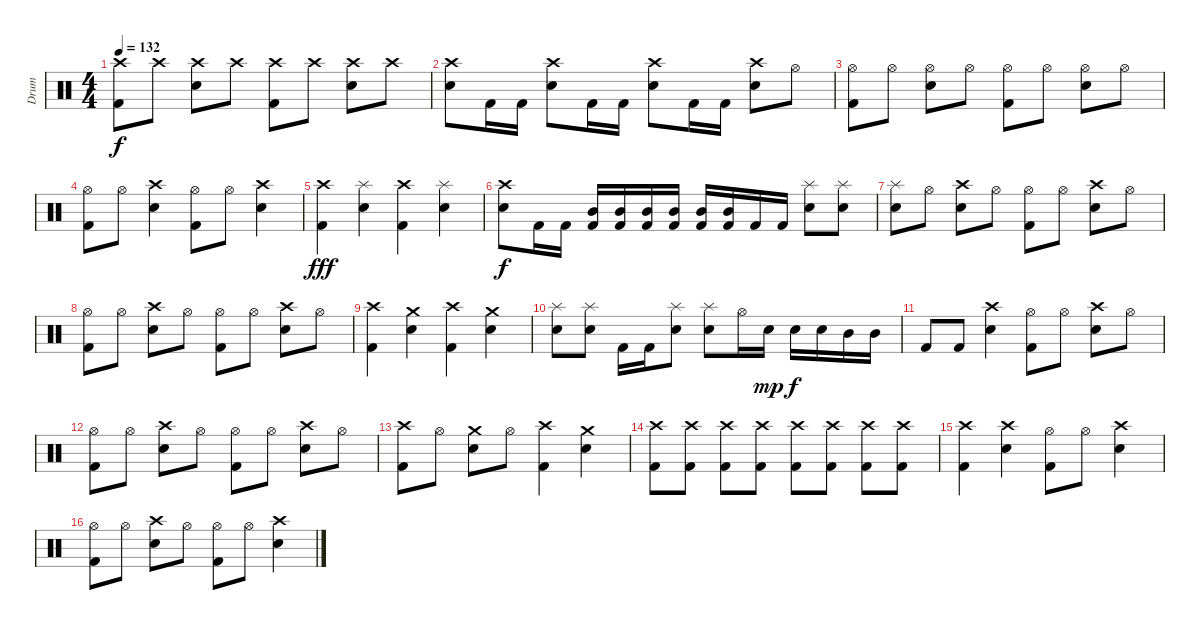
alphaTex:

\track ("Drum" "Drum") {instrument percussion}
\staff {score}
\articulation defaults
\ts (4 4)
\tempo 132
\clef neutral
\ks c
("Crash high (hit)" "Kick (hit) 2").8{dy f} "Crash high (hit)".8 ("Crash high (hit)" "Snare (hit) 2").8 "Crash high (hit)".8 ("Crash high (hit)" "Kick (hit) 2").8 "Crash high (hit)".8 ("Crash high (hit)" "Snare (hit) 2").8 "Crash high (hit)".8 |
("Crash high (hit)" "Snare (hit) 2").8 "Kick (hit) 2".16 "Kick (hit) 2".16 ("Crash high (hit)" "Snare (hit) 2").8 "Kick (hit) 2".16 "Kick (hit) 2".16 ("Crash high (hit)" "Snare (hit) 2").8 "Kick (hit) 2".16 "Kick (hit) 2".16 ("Crash high (hit)" "Snare (hit) 2").8 "Hi-Hat (open)".8 |
("Hi-Hat (open)" "Kick (hit) 2").8 "Hi-Hat (open)".8 ("Hi-Hat (open)" "Snare (hit) 2").8 "Hi-Hat (open)".8 ("Hi-Hat (open)" "Kick (hit) 2").8 "Hi-Hat (open)".8 ("Hi-Hat (open)" "Snare (hit) 2").8 "Hi-Hat (open)".8 |
("Hi-Hat (open)" "Kick (hit) 2").8 "Hi-Hat (open)".8 ("Crash high (hit)" "Snare (hit) 2").4 ("Hi-Hat (open)" "Kick (hit) 2").8 "Hi-Hat (open)".8 ("Crash high (hit)" "Snare (hit) 2").4 |
("Crash high (hit)" "Kick (hit) 2").4{dy fff} ("Splash (hit)" "Snare (hit) 2").4 ("Crash high (hit)" "Kick (hit) 2").4 ("Splash (hit)" "Snare (hit) 2").4 |
("Crash high (hit)" "Snare (hit) 2").8{dy f} "Kick (hit) 2".16 "Kick (hit) 2".16 ("Mid Tom (hit)" "Kick (hit) 2").16{bd 240} ("Mid Tom (hit)" "Kick (hit) 2").16 ("Mid Tom (hit)" "Kick (hit) 2").16{bd 240} ("Mid Tom (hit)" "Kick (hit) 2").16 ("Mid Tom (hit)" "Kick (hit) 2").16{bd 240} ("Mid Tom (hit)" "Kick (hit) 2").16 "Kick (hit) 2".16 "Kick (hit) 2".16 ("Splash (hit)" "Snare (hit) 2").8 ("Splash (hit)" "Snare (hit) 2").8 |
("Splash (hit)" "Snare (hit) 2").8 "Hi-Hat (open)".8 ("Crash high (hit)" "Snare (hit) 2").8 "Hi-Hat (open)".8 ("Hi-Hat (open)" "Kick (hit) 2").8 "Hi-Hat (open)".8 ("Crash high (hit)" "Snare (hit) 2").8 "Hi-Hat (open)".8 |
("Hi-Hat (open)" "Kick (hit) 2").8 "Hi-Hat (open)".8 ("Crash high (hit)" "Snare (hit) 2").8 "Hi-Hat (open)".8 ("Hi-Hat (open)" "Kick (hit) 2").8 "Hi-Hat (open)".8 ("Crash high (hit)" "Snare (hit) 2").8 "Hi-Hat (open)".8 |
("Crash high (hit)" "Kick (hit) 2").4 ("Crash medium (hit)" "Snare (hit) 2").4 ("Crash high (hit)" "Kick (hit) 2").4 ("Crash medium (hit)" "Snare (hit) 2").4 |
("Splash (hit)" "Snare (hit) 2").8 ("Splash (hit)" "Snare (hit) 2").8 "Kick (hit) 2".16 "Kick (hit) 2".16 ("Splash (hit)" "Snare (hit) 2").8 ("Splash (hit)" "Snare (hit) 2").8 "Hi-Hat (open)".16 "Snare (hit) 2".16{dy mp} "Snare (hit) 2".16{dy f} "Snare (hit) 2".16 "Mid Tom (hit)".16 "Mid Tom (hit)".16 |
"Kick (hit) 2".8 "Kick (hit) 2".8 ("Crash high (hit)" "Snare (hit) 2").4 ("Hi-Hat (open)" "Kick (hit) 2").8 "Hi-Hat (open)".8 ("Crash high (hit)" "Snare (hit) 2").8 "Hi-Hat (open)".8 |
("Hi-Hat (open)" "Kick (hit) 2").8 "Hi-Hat (open)".8 ("Crash high (hit)" "Snare (hit) 2").8 "Hi-Hat (open)".8 ("Hi-Hat (open)" "Kick (hit) 2").8 "Hi-Hat (open)".8 ("Crash high (hit)" "Snare (hit) 2").8 "Hi-Hat (open)".8 |
("Crash high (hit)" "Kick (hit) 2").8 "Hi-Hat (open)".8 ("Crash medium (hit)" "Snare (hit) 2").8 "Hi-Hat (open)".8 ("Crash high (hit)" "Kick (hit) 2").4 ("Crash medium (hit)" "Snare (hit) 2").4 |
("Crash high (hit)" "Kick (hit) 2").8 ("Crash high (hit)" "Kick (hit) 2").8 ("Crash high (hit)" "Kick (hit) 2").8 ("Crash high (hit)" "Kick (hit) 2").8 ("Crash high (hit)" "Kick (hit) 2").8 ("Crash high (hit)" "Kick (hit) 2").8 ("Crash high (hit)" "Kick (hit) 2").8 ("Crash high (hit)" "Kick (hit) 2").8 |
("Crash high (hit)" "Kick (hit) 2").4 ("Crash high (hit)" "Snare (hit) 2").4 ("Hi-Hat (open)" "Kick (hit) 2").8 "Hi-Hat (open)".8 ("Crash high (hit)" "Snare (hit) 2").4 |
("Hi-Hat (open)" "Kick (hit) 2").8 "Hi-Hat (open)".8 ("Crash high (hit)" "Snare (hit) 2").8 "Hi-Hat (open)".8 ("Hi-Hat (open)" "Kick (hit) 2").8 "Hi-Hat (open)".8 ("Crash high (hit)" "Snare (hit) 2").4
